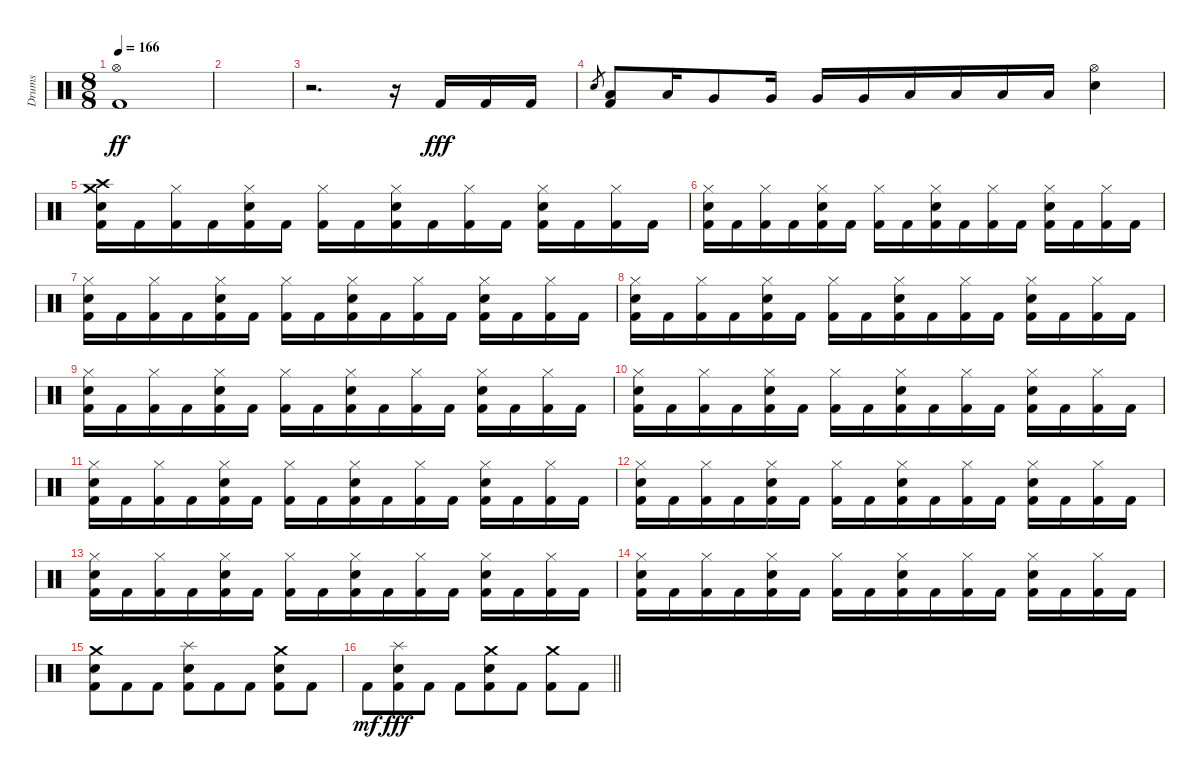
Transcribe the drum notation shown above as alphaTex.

\track ("Drums" "Drums") {instrument percussion}
\staff {score}
\articulation defaults
\ts (8 8)
\section ("" "")
\tempo 166
\clef neutral
\ks c
("Hi-Hat (open)" "Kick (hit) 2").1{dy ff} |
|
r.2{d} r.16 "Kick (hit) 2".16{dy fff} "Kick (hit) 2".16 "Kick (hit) 2".16 |
"Electric Snare (hit)".8{gr} ("Low Tom (hit)" "Kick (hit) 2").8 "Low Tom (hit)".16 "Very Low Tom (hit)".8 "Very Low Tom (hit)".16 "Very Low Tom (hit)".16 "Very Low Tom (hit)".16 "Low Floor Tom (hit)".16 "Low Floor Tom (hit)".16 "Low Floor Tom (hit)".16 "Low Floor Tom (hit)".16 ("Hi-Hat (open)" "Electric Snare (hit)").4 |
("Crash high (hit)" "Crash medium (hit)" "Electric Snare (hit)" "Kick (hit) 2").16 "Kick (hit) 2".16 ("Hi-Hat (closed)" "Kick (hit) 2").16 "Kick (hit) 2".16 ("Hi-Hat (closed)" "Electric Snare (hit)" "Kick (hit) 2").16 "Kick (hit) 2".16 ("Hi-Hat (closed)" "Kick (hit) 2").16 "Kick (hit) 2".16 ("Hi-Hat (closed)" "Electric Snare (hit)" "Kick (hit) 2").16 "Kick (hit) 2".16 ("Hi-Hat (closed)" "Kick (hit) 2").16 "Kick (hit) 2".16 ("Hi-Hat (closed)" "Electric Snare (hit)" "Kick (hit) 2").16 "Kick (hit) 2".16 ("Hi-Hat (closed)" "Kick (hit) 2").16 "Kick (hit) 2".16 |
("Hi-Hat (closed)" "Electric Snare (hit)" "Kick (hit) 2").16 "Kick (hit) 2".16 ("Hi-Hat (closed)" "Kick (hit) 2").16 "Kick (hit) 2".16 ("Hi-Hat (closed)" "Electric Snare (hit)" "Kick (hit) 2").16 "Kick (hit) 2".16 ("Hi-Hat (closed)" "Kick (hit) 2").16 "Kick (hit) 2".16 ("Hi-Hat (closed)" "Electric Snare (hit)" "Kick (hit) 2").16 "Kick (hit) 2".16 ("Hi-Hat (closed)" "Kick (hit) 2").16 "Kick (hit) 2".16 ("Hi-Hat (closed)" "Electric Snare (hit)" "Kick (hit) 2").16 "Kick (hit) 2".16 ("Hi-Hat (closed)" "Kick (hit) 2").16 "Kick (hit) 2".16 |
("Hi-Hat (closed)" "Electric Snare (hit)" "Kick (hit) 2").16 "Kick (hit) 2".16 ("Hi-Hat (closed)" "Kick (hit) 2").16 "Kick (hit) 2".16 ("Hi-Hat (closed)" "Electric Snare (hit)" "Kick (hit) 2").16 "Kick (hit) 2".16 ("Hi-Hat (closed)" "Kick (hit) 2").16 "Kick (hit) 2".16 ("Hi-Hat (closed)" "Electric Snare (hit)" "Kick (hit) 2").16 "Kick (hit) 2".16 ("Hi-Hat (closed)" "Kick (hit) 2").16 "Kick (hit) 2".16 ("Hi-Hat (closed)" "Electric Snare (hit)" "Kick (hit) 2").16 "Kick (hit) 2".16 ("Hi-Hat (closed)" "Kick (hit) 2").16 "Kick (hit) 2".16 |
("Hi-Hat (closed)" "Electric Snare (hit)" "Kick (hit) 2").16 "Kick (hit) 2".16 ("Hi-Hat (closed)" "Kick (hit) 2").16 "Kick (hit) 2".16 ("Hi-Hat (closed)" "Electric Snare (hit)" "Kick (hit) 2").16 "Kick (hit) 2".16 ("Hi-Hat (closed)" "Kick (hit) 2").16 "Kick (hit) 2".16 ("Hi-Hat (closed)" "Electric Snare (hit)" "Kick (hit) 2").16 "Kick (hit) 2".16 ("Hi-Hat (closed)" "Kick (hit) 2").16 "Kick (hit) 2".16 ("Hi-Hat (closed)" "Electric Snare (hit)" "Kick (hit) 2").16 "Kick (hit) 2".16 ("Hi-Hat (closed)" "Kick (hit) 2").16 "Kick (hit) 2".16 |
("Hi-Hat (closed)" "Electric Snare (hit)" "Kick (hit) 2").16 "Kick (hit) 2".16 ("Hi-Hat (closed)" "Kick (hit) 2").16 "Kick (hit) 2".16 ("Hi-Hat (closed)" "Electric Snare (hit)" "Kick (hit) 2").16 "Kick (hit) 2".16 ("Hi-Hat (closed)" "Kick (hit) 2").16 "Kick (hit) 2".16 ("Hi-Hat (closed)" "Electric Snare (hit)" "Kick (hit) 2").16 "Kick (hit) 2".16 ("Hi-Hat (closed)" "Kick (hit) 2").16 "Kick (hit) 2".16 ("Hi-Hat (closed)" "Electric Snare (hit)" "Kick (hit) 2").16 "Kick (hit) 2".16 ("Hi-Hat (closed)" "Kick (hit) 2").16 "Kick (hit) 2".16 |
("Hi-Hat (closed)" "Electric Snare (hit)" "Kick (hit) 2").16 "Kick (hit) 2".16 ("Hi-Hat (closed)" "Kick (hit) 2").16 "Kick (hit) 2".16 ("Hi-Hat (closed)" "Electric Snare (hit)" "Kick (hit) 2").16 "Kick (hit) 2".16 ("Hi-Hat (closed)" "Kick (hit) 2").16 "Kick (hit) 2".16 ("Hi-Hat (closed)" "Electric Snare (hit)" "Kick (hit) 2").16 "Kick (hit) 2".16 ("Hi-Hat (closed)" "Kick (hit) 2").16 "Kick (hit) 2".16 ("Hi-Hat (closed)" "Electric Snare (hit)" "Kick (hit) 2").16 "Kick (hit) 2".16 ("Hi-Hat (closed)" "Kick (hit) 2").16 "Kick (hit) 2".16 |
("Hi-Hat (closed)" "Electric Snare (hit)" "Kick (hit) 2").16 "Kick (hit) 2".16 ("Hi-Hat (closed)" "Kick (hit) 2").16 "Kick (hit) 2".16 ("Hi-Hat (closed)" "Electric Snare (hit)" "Kick (hit) 2").16 "Kick (hit) 2".16 ("Hi-Hat (closed)" "Kick (hit) 2").16 "Kick (hit) 2".16 ("Hi-Hat (closed)" "Electric Snare (hit)" "Kick (hit) 2").16 "Kick (hit) 2".16 ("Hi-Hat (closed)" "Kick (hit) 2").16 "Kick (hit) 2".16 ("Hi-Hat (closed)" "Electric Snare (hit)" "Kick (hit) 2").16 "Kick (hit) 2".16 ("Hi-Hat (closed)" "Kick (hit) 2").16 "Kick (hit) 2".16 |
("Hi-Hat (closed)" "Electric Snare (hit)" "Kick (hit) 2").16 "Kick (hit) 2".16 ("Hi-Hat (closed)" "Kick (hit) 2").16 "Kick (hit) 2".16 ("Hi-Hat (closed)" "Electric Snare (hit)" "Kick (hit) 2").16 "Kick (hit) 2".16 ("Hi-Hat (closed)" "Kick (hit) 2").16 "Kick (hit) 2".16 ("Hi-Hat (closed)" "Electric Snare (hit)" "Kick (hit) 2").16 "Kick (hit) 2".16 ("Hi-Hat (closed)" "Kick (hit) 2").16 "Kick (hit) 2".16 ("Hi-Hat (closed)" "Electric Snare (hit)" "Kick (hit) 2").16 "Kick (hit) 2".16 ("Hi-Hat (closed)" "Kick (hit) 2").16 "Kick (hit) 2".16 |
("Hi-Hat (closed)" "Electric Snare (hit)" "Kick (hit) 2").16 "Kick (hit) 2".16 ("Hi-Hat (closed)" "Kick (hit) 2").16 "Kick (hit) 2".16 ("Hi-Hat (closed)" "Electric Snare (hit)" "Kick (hit) 2").16 "Kick (hit) 2".16 ("Hi-Hat (closed)" "Kick (hit) 2").16 "Kick (hit) 2".16 ("Hi-Hat (closed)" "Electric Snare (hit)" "Kick (hit) 2").16 "Kick (hit) 2".16 ("Hi-Hat (closed)" "Kick (hit) 2").16 "Kick (hit) 2".16 ("Hi-Hat (closed)" "Electric Snare (hit)" "Kick (hit) 2").16 "Kick (hit) 2".16 ("Hi-Hat (closed)" "Kick (hit) 2").16 "Kick (hit) 2".16 |
("Hi-Hat (closed)" "Electric Snare (hit)" "Kick (hit) 2").16 "Kick (hit) 2".16 ("Hi-Hat (closed)" "Kick (hit) 2").16 "Kick (hit) 2".16 ("Hi-Hat (closed)" "Electric Snare (hit)" "Kick (hit) 2").16 "Kick (hit) 2".16 ("Hi-Hat (closed)" "Kick (hit) 2").16 "Kick (hit) 2".16 ("Hi-Hat (closed)" "Electric Snare (hit)" "Kick (hit) 2").16 "Kick (hit) 2".16 ("Hi-Hat (closed)" "Kick (hit) 2").16 "Kick (hit) 2".16 ("Hi-Hat (closed)" "Electric Snare (hit)" "Kick (hit) 2").16 "Kick (hit) 2".16 ("Hi-Hat (closed)" "Kick (hit) 2").16 "Kick (hit) 2".16 |
("Crash medium (hit)" "Electric Snare (hit)" "Kick (hit) 2").8 "Kick (hit) 2".8 "Kick (hit) 2".8 ("Splash (hit)" "Electric Snare (hit)" "Kick (hit) 2").8 "Kick (hit) 2".8 "Kick (hit) 2".8 ("Crash medium (hit)" "Electric Snare (hit)" "Kick (hit) 2").8 "Kick (hit) 2".8 |
\barLineRight lightlight "Kick (hit) 2".8{dy mf}
("Splash (hit)" "Electric Snare (hit)" "Kick (hit) 2").8{dy fff} "Kick (hit) 2".8 "Kick (hit) 2".8 ("Crash medium (hit)" "Electric Snare (hit)" "Kick (hit) 2").8 "Kick (hit) 2".8 ("Crash medium (hit)" "Kick (hit) 2").8 "Kick (hit) 2".8
